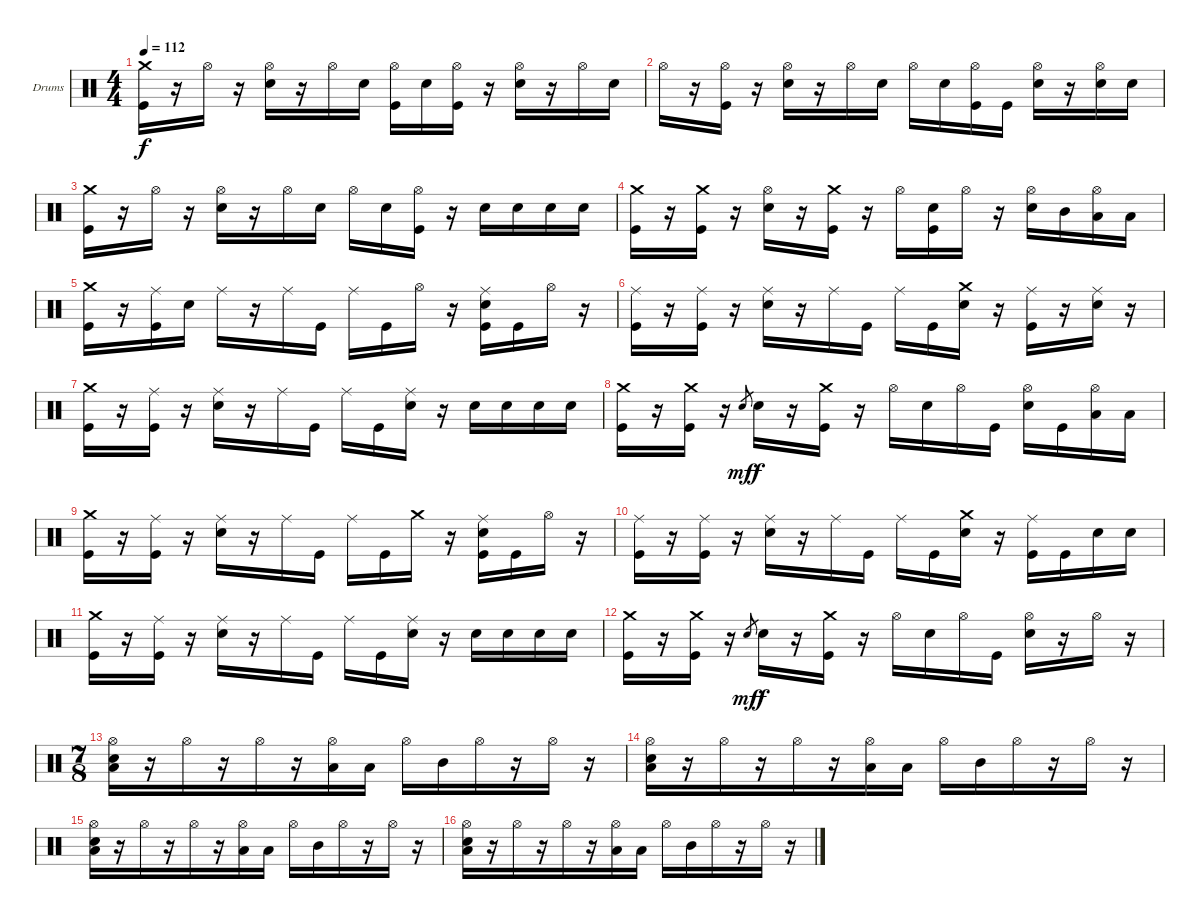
\bracketExtendMode groupsimilarinstruments
\firstSystemTrackNameOrientation horizontal
\otherSystemsTrackNameOrientation horizontal
\track ("Drumkit" "Drums") {instrument percussion}
\staff {score}
\articulation defaults
\ts (4 4)
\tempo 112
\clef neutral
\ks c
("Crash medium (hit)" "Kick (hit)").16{dy f} r.16 "Hi-Hat (open)".16 r.16 ("Hi-Hat (open)" "Snare (hit) 2").16 r.16 "Hi-Hat (open)".16 "Snare (hit) 2".16 ("Hi-Hat (open)" "Kick (hit)").16 "Snare (hit) 2".16 ("Hi-Hat (open)" "Kick (hit)").16 r.16 ("Hi-Hat (open)" "Snare (hit) 2").16 r.16 "Hi-Hat (open)".16 "Snare (hit) 2".16 |
"Hi-Hat (open)".16 r.16 ("Hi-Hat (open)" "Kick (hit)").16 r.16 ("Hi-Hat (open)" "Snare (hit) 2").16 r.16 "Hi-Hat (open)".16 "Snare (hit) 2".16 "Hi-Hat (open)".16 "Snare (hit) 2".16 ("Hi-Hat (open)" "Kick (hit)").16 "Kick (hit)".16 ("Hi-Hat (open)" "Snare (hit) 2").16 r.16 ("Hi-Hat (open)" "Snare (hit) 2").16 "Snare (hit) 2".16 |
("Crash medium (hit)" "Kick (hit)").16 r.16 "Hi-Hat (open)".16 r.16 ("Hi-Hat (open)" "Snare (hit) 2").16 r.16 "Hi-Hat (open)".16 "Snare (hit) 2".16 "Hi-Hat (open)".16 "Snare (hit) 2".16 ("Hi-Hat (open)" "Kick (hit)").16 r.16 "Snare (hit) 2".16 "Snare (hit) 2".16 "Snare (hit) 2".16 "Snare (hit) 2".16 |
("Crash medium (hit)" "Kick (hit)").16 r.16 ("Crash medium (hit)" "Kick (hit)").16 r.16 ("Hi-Hat (open)" "Snare (hit) 2").16 r.16 ("Crash medium (hit)" "Kick (hit)").16 r.16 "Hi-Hat (open)".16 ("Snare (hit) 2" "Kick (hit)").16 "Hi-Hat (open)".16 r.16 ("Hi-Hat (open)" "Snare (hit) 2").16 "Mid Tom (hit)".16 ("Hi-Hat (open)" "Low Tom (hit)").16 "Low Tom (hit)".16 |
("Crash medium (hit)" "Kick (hit)").16 r.16 ("Ride (middle)" "Kick (hit)").16 "Snare (hit) 2".16 "Ride (middle)".16 r.16 "Ride (middle)".16 "Kick (hit)".16 "Ride (middle)".16 "Kick (hit)".16 "Hi-Hat (open)".16 r.16 ("Ride (middle)" "Snare (hit) 2" "Kick (hit)").16 "Kick (hit)".16 "Hi-Hat (open)".16 r.16 |
("Ride (middle)" "Kick (hit)").16 r.16 ("Ride (middle)" "Kick (hit)").16 r.16 ("Ride (middle)" "Snare (hit) 2").16 r.16 "Ride (middle)".16 "Kick (hit)".16 "Ride (middle)".16 "Kick (hit)".16 ("Crash medium (hit)" "Snare (hit) 2").16 r.16 ("Ride (middle)" "Kick (hit)").16 r.16 ("Ride (middle)" "Snare (hit) 2").16 r.16 |
("Crash medium (hit)" "Kick (hit)").16 r.16 ("Ride (middle)" "Kick (hit)").16 r.16 ("Ride (middle)" "Snare (hit) 2").16 r.16 "Ride (middle)".16 "Kick (hit)".16 "Ride (middle)".16 "Kick (hit)".16 ("Ride (middle)" "Snare (hit) 2").16 r.16 "Snare (hit) 2".16 "Snare (hit) 2".16 "Snare (hit) 2".16 "Snare (hit) 2".16 |
("Crash medium (hit)" "Kick (hit)").16 r.16 ("Crash medium (hit)" "Kick (hit)").16 r.16 "Snare (hit) 2".8{gr dy mf} "Snare (hit) 2".16{dy f} r.16 ("Crash medium (hit)" "Kick (hit)").16 r.16 "Hi-Hat (open)".16 "Snare (hit) 2".16 "Hi-Hat (open)".16 "Kick (hit)".16 ("Hi-Hat (open)" "Snare (hit) 2").16 "Kick (hit)".16 ("Hi-Hat (open)" "Low Tom (hit)").16 "Low Tom (hit)".16 |
("Crash medium (hit)" "Kick (hit)").16 r.16 ("Ride (middle)" "Kick (hit)").16 r.16 ("Ride (middle)" "Snare (hit) 2").16 r.16 "Ride (middle)".16 "Kick (hit)".16 "Ride (middle)".16 "Kick (hit)".16 "Crash medium (hit)".16 r.16 ("Ride (middle)" "Snare (hit) 2" "Kick (hit)").16 "Kick (hit)".16 "Hi-Hat (open)".16 r.16 |
("Ride (middle)" "Kick (hit)").16 r.16 ("Ride (middle)" "Kick (hit)").16 r.16 ("Ride (middle)" "Snare (hit) 2").16 r.16 "Ride (middle)".16 "Kick (hit)".16 "Ride (middle)".16 "Kick (hit)".16 ("Crash medium (hit)" "Snare (hit) 2").16 r.16 ("Ride (middle)" "Kick (hit)").16 "Kick (hit)".16 "Snare (hit) 2".16 "Snare (hit) 2".16 |
("Crash medium (hit)" "Kick (hit)").16 r.16 ("Ride (middle)" "Kick (hit)").16 r.16 ("Ride (middle)" "Snare (hit) 2").16 r.16 "Ride (middle)".16 "Kick (hit)".16 "Ride (middle)".16 "Kick (hit)".16 ("Ride (middle)" "Snare (hit) 2").16 r.16 "Snare (hit) 2".16 "Snare (hit) 2".16 "Snare (hit) 2".16 "Snare (hit) 2".16 |
("Crash medium (hit)" "Kick (hit)").16 r.16 ("Crash medium (hit)" "Kick (hit)").16 r.16 "Snare (hit) 2".8{gr dy mf} "Snare (hit) 2".16{dy f} r.16 ("Crash medium (hit)" "Kick (hit)").16 r.16 "Hi-Hat (open)".16 "Snare (hit) 2".16 "Hi-Hat (open)".16 "Kick (hit)".16 ("Hi-Hat (open)" "Snare (hit) 2").16 r.16 "Hi-Hat (open)".16 r.16 |
\ts (7 8)
("Hi-Hat (open)" "Low Tom (hit)" "Snare (hit) 2").16 r.16 "Hi-Hat (open)".16 r.16 "Hi-Hat (open)".16 r.16 ("Hi-Hat (open)" "Low Tom (hit)").16 "Low Tom (hit)".16 "Hi-Hat (open)".16 "Mid Tom (hit)".16 "Hi-Hat (open)".16 r.16 "Hi-Hat (open)".16 r.16 |
("Hi-Hat (open)" "Low Tom (hit)" "Snare (hit) 2").16 r.16 "Hi-Hat (open)".16 r.16 "Hi-Hat (open)".16 r.16 ("Hi-Hat (open)" "Low Tom (hit)").16 "Low Tom (hit)".16 "Hi-Hat (open)".16 "Mid Tom (hit)".16 "Hi-Hat (open)".16 r.16 "Hi-Hat (open)".16 r.16 |
("Hi-Hat (open)" "Low Tom (hit)" "Snare (hit) 2").16 r.16 "Hi-Hat (open)".16 r.16 "Hi-Hat (open)".16 r.16 ("Hi-Hat (open)" "Low Tom (hit)").16 "Low Tom (hit)".16 "Hi-Hat (open)".16 "Mid Tom (hit)".16 "Hi-Hat (open)".16 r.16 "Hi-Hat (open)".16 r.16 |
("Hi-Hat (open)" "Low Tom (hit)" "Snare (hit) 2").16 r.16 "Hi-Hat (open)".16 r.16 "Hi-Hat (open)".16 r.16 ("Hi-Hat (open)" "Low Tom (hit)").16 "Low Tom (hit)".16 "Hi-Hat (open)".16 "Mid Tom (hit)".16 "Hi-Hat (open)".16 r.16 "Hi-Hat (open)".16 r.16
